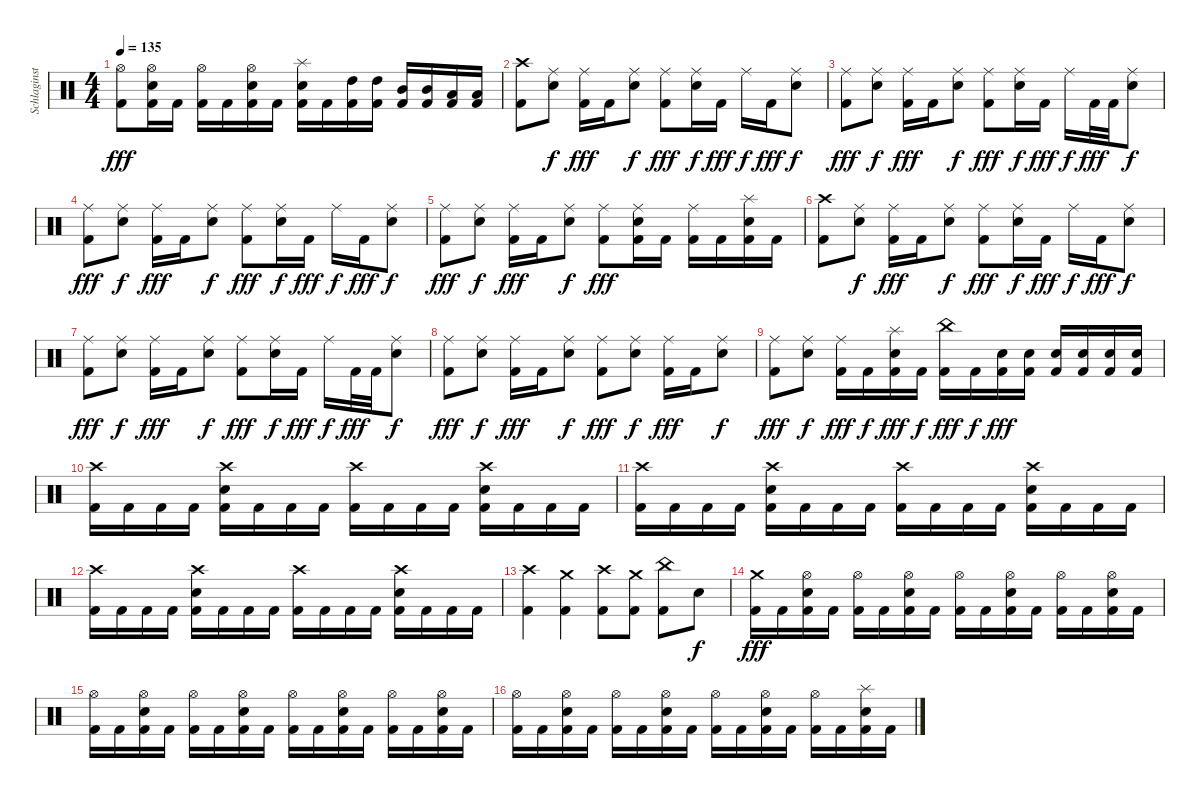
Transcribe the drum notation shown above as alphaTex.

\track ("Schlaginstrumente - Auswahl" "Schlaginst") {instrument percussion}
\staff {score}
\articulation defaults
\ts (4 4)
\tempo 135
\clef neutral
\ks c
("Hi-Hat (open)" "Kick (hit) 2").8{dy fff} ("Hi-Hat (open)" "Snare (hit) 2" "Kick (hit) 2").16 "Kick (hit) 2".16 ("Hi-Hat (open)" "Kick (hit) 2").16 "Kick (hit) 2".16 ("Hi-Hat (open)" "Snare (hit) 2" "Kick (hit) 2").16 "Kick (hit) 2".16 ("Splash (hit)" "Snare (hit) 2" "Kick (hit) 2").16 "Kick (hit) 2".16 ("High Tom (hit)" "Kick (hit) 2").16 ("High Tom (hit)" "Kick (hit) 2").16 ("Mid Tom (hit)" "Kick (hit) 2").16 ("Mid Tom (hit)" "Kick (hit) 2").16 ("Low Tom (hit)" "Kick (hit) 2").16 ("Low Tom (hit)" "Kick (hit) 2").16 |
("Crash high (hit)" "Kick (hit) 2").8 ("Ride (middle)" "Snare (hit) 2").8{dy f} ("Ride (middle)" "Kick (hit) 2").16{dy fff} "Kick (hit) 2".16 ("Ride (middle)" "Snare (hit) 2").8{dy f} ("Ride (middle)" "Kick (hit) 2").8{dy fff} ("Ride (middle)" "Snare (hit) 2").16{dy f} "Kick (hit) 2".16{dy fff} "Ride (middle)".16{dy f} "Kick (hit) 2".16{dy fff} ("Ride (middle)" "Snare (hit) 2").8{dy f} |
("Ride (middle)" "Kick (hit) 2").8{dy fff} ("Ride (middle)" "Snare (hit) 2").8{dy f} ("Ride (middle)" "Kick (hit) 2").16{dy fff} "Kick (hit) 2".16 ("Ride (middle)" "Snare (hit) 2").8{dy f} ("Ride (middle)" "Kick (hit) 2").8{dy fff} ("Ride (middle)" "Snare (hit) 2").16{dy f} "Kick (hit) 2".16{dy fff} "Ride (middle)".16{dy f} "Kick (hit) 2".32{dy fff} "Kick (hit) 2".32 ("Ride (middle)" "Snare (hit) 2").8{dy f} |
("Ride (middle)" "Kick (hit) 2").8{dy fff} ("Ride (middle)" "Snare (hit) 2").8{dy f} ("Ride (middle)" "Kick (hit) 2").16{dy fff} "Kick (hit) 2".16 ("Ride (middle)" "Snare (hit) 2").8{dy f} ("Ride (middle)" "Kick (hit) 2").8{dy fff} ("Ride (middle)" "Snare (hit) 2").16{dy f} "Kick (hit) 2".16{dy fff} "Ride (middle)".16{dy f} "Kick (hit) 2".16{dy fff} ("Ride (middle)" "Snare (hit) 2").8{dy f} |
("Ride (middle)" "Kick (hit) 2").8{dy fff} ("Ride (middle)" "Snare (hit) 2").8{dy f} ("Ride (middle)" "Kick (hit) 2").16{dy fff} "Kick (hit) 2".16 ("Ride (middle)" "Snare (hit) 2").8{dy f} ("Ride (middle)" "Kick (hit) 2").8{dy fff} ("Ride (middle)" "Snare (hit) 2" "Kick (hit) 2").16 "Kick (hit) 2".16 ("Ride (middle)" "Kick (hit) 2").16 "Kick (hit) 2".16 ("Splash (hit)" "Snare (hit) 2" "Kick (hit) 2").16 "Kick (hit) 2".16 |
("Crash high (hit)" "Kick (hit) 2").8 ("Ride (middle)" "Snare (hit) 2").8{dy f} ("Ride (middle)" "Kick (hit) 2").16{dy fff} "Kick (hit) 2".16 ("Ride (middle)" "Snare (hit) 2").8{dy f} ("Ride (middle)" "Kick (hit) 2").8{dy fff} ("Ride (middle)" "Snare (hit) 2").16{dy f} "Kick (hit) 2".16{dy fff} "Ride (middle)".16{dy f} "Kick (hit) 2".16{dy fff} ("Ride (middle)" "Snare (hit) 2").8{dy f} |
("Ride (middle)" "Kick (hit) 2").8{dy fff} ("Ride (middle)" "Snare (hit) 2").8{dy f} ("Ride (middle)" "Kick (hit) 2").16{dy fff} "Kick (hit) 2".16 ("Ride (middle)" "Snare (hit) 2").8{dy f} ("Ride (middle)" "Kick (hit) 2").8{dy fff} ("Ride (middle)" "Snare (hit) 2").16{dy f} "Kick (hit) 2".16{dy fff} "Ride (middle)".16{dy f} "Kick (hit) 2".32{dy fff} "Kick (hit) 2".32 ("Ride (middle)" "Snare (hit) 2").8{dy f} |
("Ride (middle)" "Kick (hit) 2").8{dy fff} ("Ride (middle)" "Snare (hit) 2").8{dy f} ("Ride (middle)" "Kick (hit) 2").16{dy fff} "Kick (hit) 2".16 ("Ride (middle)" "Snare (hit) 2").8{dy f} ("Ride (middle)" "Kick (hit) 2").8{dy fff} ("Ride (middle)" "Snare (hit) 2").8{dy f} ("Ride (middle)" "Kick (hit) 2").16{dy fff} "Kick (hit) 2".16 ("Ride (middle)" "Snare (hit) 2").8{dy f} |
("Ride (middle)" "Kick (hit) 2").8{dy fff} ("Ride (middle)" "Snare (hit) 2").8{dy f} ("Ride (middle)" "Kick (hit) 2").16{dy fff} "Kick (hit) 2".16{dy f} ("Splash (hit)" "Snare (hit) 2" "Kick (hit) 2").16{dy fff} "Kick (hit) 2".16{dy f} ("China (hit)" "Kick (hit) 2").16{dy fff} "Kick (hit) 2".16{dy f} ("Snare (hit) 2" "Kick (hit) 2").16{dy fff} ("Snare (hit) 2" "Kick (hit) 2").16 ("Snare (hit) 2" "Kick (hit) 2").16 ("Snare (hit) 2" "Kick (hit) 2").16 ("Snare (hit) 2" "Kick (hit) 2").16 ("Snare (hit) 2" "Kick (hit) 2").16 |
("Crash high (hit)" "Kick (hit) 2").16 "Kick (hit) 2".16 "Kick (hit) 2".16 "Kick (hit) 2".16 ("Crash high (hit)" "Snare (hit) 2" "Kick (hit) 2").16 "Kick (hit) 2".16 "Kick (hit) 2".16 "Kick (hit) 2".16 ("Crash high (hit)" "Kick (hit) 2").16 "Kick (hit) 2".16 "Kick (hit) 2".16 "Kick (hit) 2".16 ("Crash high (hit)" "Snare (hit) 2" "Kick (hit) 2").16 "Kick (hit) 2".16 "Kick (hit) 2".16 "Kick (hit) 2".16 |
("Crash high (hit)" "Kick (hit) 2").16 "Kick (hit) 2".16 "Kick (hit) 2".16 "Kick (hit) 2".16 ("Crash high (hit)" "Snare (hit) 2" "Kick (hit) 2").16 "Kick (hit) 2".16 "Kick (hit) 2".16 "Kick (hit) 2".16 ("Crash high (hit)" "Kick (hit) 2").16 "Kick (hit) 2".16 "Kick (hit) 2".16 "Kick (hit) 2".16 ("Crash high (hit)" "Snare (hit) 2" "Kick (hit) 2").16 "Kick (hit) 2".16 "Kick (hit) 2".16 "Kick (hit) 2".16 |
("Crash high (hit)" "Kick (hit) 2").16 "Kick (hit) 2".16 "Kick (hit) 2".16 "Kick (hit) 2".16 ("Crash high (hit)" "Snare (hit) 2" "Kick (hit) 2").16 "Kick (hit) 2".16 "Kick (hit) 2".16 "Kick (hit) 2".16 ("Crash high (hit)" "Kick (hit) 2").16 "Kick (hit) 2".16 "Kick (hit) 2".16 "Kick (hit) 2".16 ("Crash high (hit)" "Snare (hit) 2" "Kick (hit) 2").16 "Kick (hit) 2".16 "Kick (hit) 2".16 "Kick (hit) 2".16 |
("Crash high (hit)" "Kick (hit) 2").4 ("Crash medium (hit)" "Kick (hit) 2").4 ("Crash high (hit)" "Kick (hit) 2").8 ("Crash medium (hit)" "Kick (hit) 2").8 ("China (hit)" "Kick (hit) 2").8 "Snare (hit) 2".8{dy f} |
("Crash medium (hit)" "Kick (hit) 2").16{dy fff} "Kick (hit) 2".16 ("Hi-Hat (open)" "Snare (hit) 2" "Kick (hit) 2").16 "Kick (hit) 2".16 ("Hi-Hat (open)" "Kick (hit) 2").16 "Kick (hit) 2".16 ("Hi-Hat (open)" "Snare (hit) 2" "Kick (hit) 2").16 "Kick (hit) 2".16 ("Hi-Hat (open)" "Kick (hit) 2").16 "Kick (hit) 2".16 ("Hi-Hat (open)" "Snare (hit) 2" "Kick (hit) 2").16 "Kick (hit) 2".16 ("Hi-Hat (open)" "Kick (hit) 2").16 "Kick (hit) 2".16 ("Hi-Hat (open)" "Snare (hit) 2" "Kick (hit) 2").16 "Kick (hit) 2".16 |
("Hi-Hat (open)" "Kick (hit) 2").16 "Kick (hit) 2".16 ("Hi-Hat (open)" "Snare (hit) 2" "Kick (hit) 2").16 "Kick (hit) 2".16 ("Hi-Hat (open)" "Kick (hit) 2").16 "Kick (hit) 2".16 ("Hi-Hat (open)" "Snare (hit) 2" "Kick (hit) 2").16 "Kick (hit) 2".16 ("Hi-Hat (open)" "Kick (hit) 2").16 "Kick (hit) 2".16 ("Hi-Hat (open)" "Snare (hit) 2" "Kick (hit) 2").16 "Kick (hit) 2".16 ("Hi-Hat (open)" "Kick (hit) 2").16 "Kick (hit) 2".16 ("Hi-Hat (open)" "Snare (hit) 2" "Kick (hit) 2").16 "Kick (hit) 2".16 |
("Hi-Hat (open)" "Kick (hit) 2").16 "Kick (hit) 2".16 ("Hi-Hat (open)" "Snare (hit) 2" "Kick (hit) 2").16 "Kick (hit) 2".16 ("Hi-Hat (open)" "Kick (hit) 2").16 "Kick (hit) 2".16 ("Hi-Hat (open)" "Snare (hit) 2" "Kick (hit) 2").16 "Kick (hit) 2".16 ("Hi-Hat (open)" "Kick (hit) 2").16 "Kick (hit) 2".16 ("Hi-Hat (open)" "Snare (hit) 2" "Kick (hit) 2").16 "Kick (hit) 2".16 ("Hi-Hat (open)" "Kick (hit) 2").16 "Kick (hit) 2".16 ("Splash (hit)" "Snare (hit) 2" "Kick (hit) 2").16 "Kick (hit) 2".16
